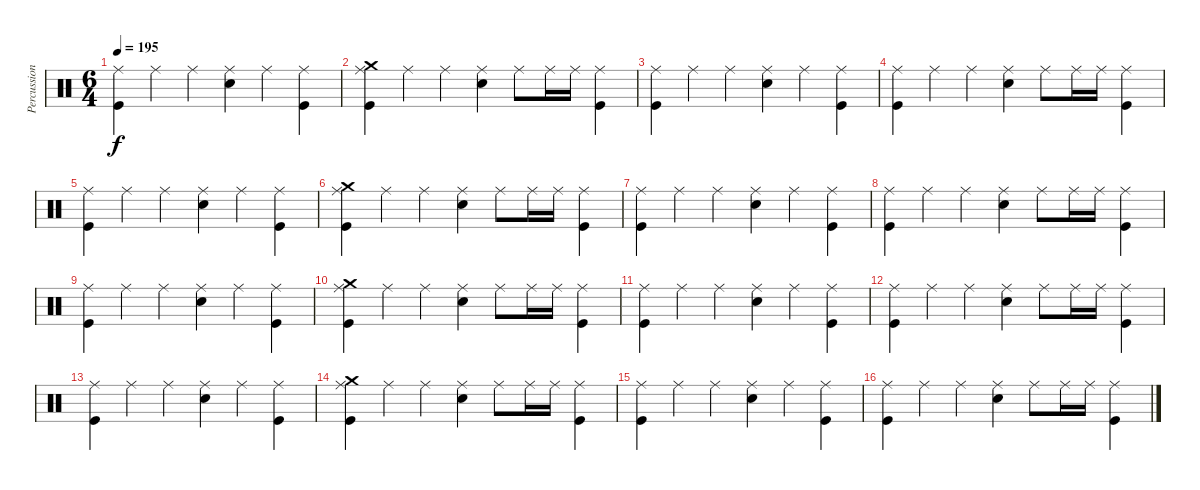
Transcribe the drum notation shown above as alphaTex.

\track ("Percussion" "Percussion") {instrument percussion}
\staff {score}
\articulation defaults
\ts (6 4)
\tempo 195
\clef neutral
\ks c
("Ride (middle)" "Kick (hit)").4{dy f} "Ride (middle)".4 "Ride (middle)".4 ("Ride (middle)" "Electric Snare (hit)").4 "Ride (middle)".4 ("Ride (middle)" "Kick (hit)").4 |
("Crash medium (hit)" "Ride (middle)" "Kick (hit)").4 "Ride (middle)".4 "Ride (middle)".4 ("Ride (middle)" "Electric Snare (hit)").4 "Ride (middle)".8 "Ride (middle)".16 "Ride (middle)".16 ("Ride (middle)" "Kick (hit)").4 |
("Ride (middle)" "Kick (hit)").4 "Ride (middle)".4 "Ride (middle)".4 ("Ride (middle)" "Electric Snare (hit)").4 "Ride (middle)".4 ("Ride (middle)" "Kick (hit)").4 |
("Ride (middle)" "Kick (hit)").4 "Ride (middle)".4 "Ride (middle)".4 ("Ride (middle)" "Electric Snare (hit)").4 "Ride (middle)".8 "Ride (middle)".16 "Ride (middle)".16 ("Ride (middle)" "Kick (hit)").4 |
("Ride (middle)" "Kick (hit)").4 "Ride (middle)".4 "Ride (middle)".4 ("Ride (middle)" "Electric Snare (hit)").4 "Ride (middle)".4 ("Ride (middle)" "Kick (hit)").4 |
("Crash medium (hit)" "Ride (middle)" "Kick (hit)").4 "Ride (middle)".4 "Ride (middle)".4 ("Ride (middle)" "Electric Snare (hit)").4 "Ride (middle)".8 "Ride (middle)".16 "Ride (middle)".16 ("Ride (middle)" "Kick (hit)").4 |
("Ride (middle)" "Kick (hit)").4 "Ride (middle)".4 "Ride (middle)".4 ("Ride (middle)" "Electric Snare (hit)").4 "Ride (middle)".4 ("Ride (middle)" "Kick (hit)").4 |
("Ride (middle)" "Kick (hit)").4 "Ride (middle)".4 "Ride (middle)".4 ("Ride (middle)" "Electric Snare (hit)").4 "Ride (middle)".8 "Ride (middle)".16 "Ride (middle)".16 ("Ride (middle)" "Kick (hit)").4 |
("Ride (middle)" "Kick (hit)").4 "Ride (middle)".4 "Ride (middle)".4 ("Ride (middle)" "Electric Snare (hit)").4 "Ride (middle)".4 ("Ride (middle)" "Kick (hit)").4 |
("Crash medium (hit)" "Ride (middle)" "Kick (hit)").4 "Ride (middle)".4 "Ride (middle)".4 ("Ride (middle)" "Electric Snare (hit)").4 "Ride (middle)".8 "Ride (middle)".16 "Ride (middle)".16 ("Ride (middle)" "Kick (hit)").4 |
("Ride (middle)" "Kick (hit)").4 "Ride (middle)".4 "Ride (middle)".4 ("Ride (middle)" "Electric Snare (hit)").4 "Ride (middle)".4 ("Ride (middle)" "Kick (hit)").4 |
("Ride (middle)" "Kick (hit)").4 "Ride (middle)".4 "Ride (middle)".4 ("Ride (middle)" "Electric Snare (hit)").4 "Ride (middle)".8 "Ride (middle)".16 "Ride (middle)".16 ("Ride (middle)" "Kick (hit)").4 |
("Ride (middle)" "Kick (hit)").4 "Ride (middle)".4 "Ride (middle)".4 ("Ride (middle)" "Electric Snare (hit)").4 "Ride (middle)".4 ("Ride (middle)" "Kick (hit)").4 |
("Crash medium (hit)" "Ride (middle)" "Kick (hit)").4 "Ride (middle)".4 "Ride (middle)".4 ("Ride (middle)" "Electric Snare (hit)").4 "Ride (middle)".8 "Ride (middle)".16 "Ride (middle)".16 ("Ride (middle)" "Kick (hit)").4 |
("Ride (middle)" "Kick (hit)").4 "Ride (middle)".4 "Ride (middle)".4 ("Ride (middle)" "Electric Snare (hit)").4 "Ride (middle)".4 ("Ride (middle)" "Kick (hit)").4 |
("Ride (middle)" "Kick (hit)").4 "Ride (middle)".4 "Ride (middle)".4 ("Ride (middle)" "Electric Snare (hit)").4 "Ride (middle)".8 "Ride (middle)".16 "Ride (middle)".16 ("Ride (middle)" "Kick (hit)").4
